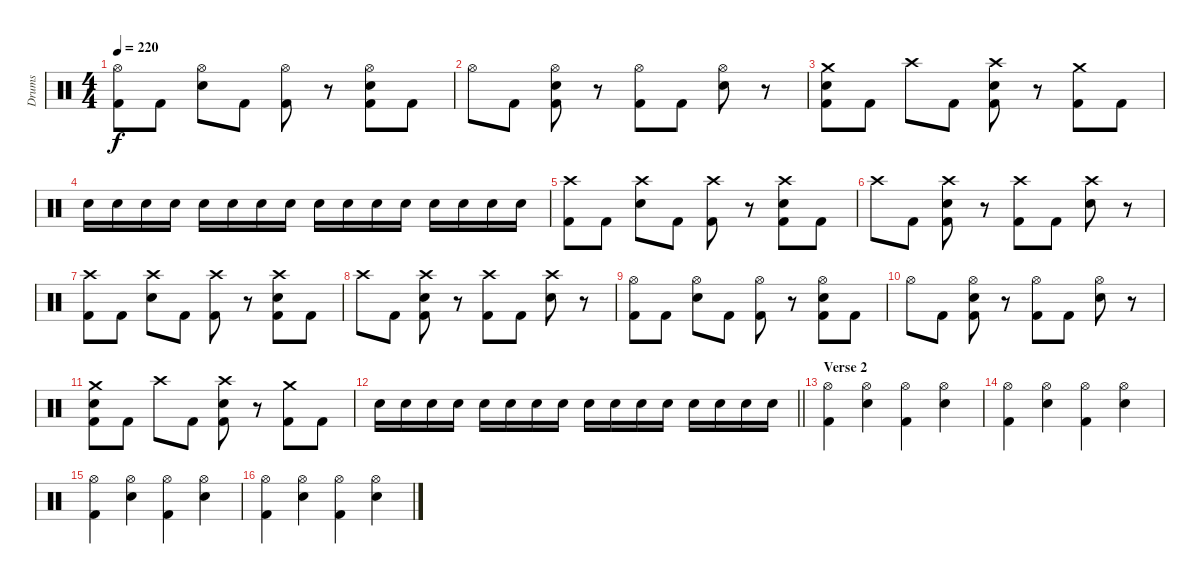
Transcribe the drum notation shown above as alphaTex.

\track ("Drums" "Drums") {instrument percussion}
\staff {score}
\articulation defaults
\ts (4 4)
\tempo 220
\clef neutral
\ks c
("Hi-Hat (open)" "Kick (hit) 2").8{dy f} "Kick (hit) 2".8 ("Hi-Hat (open)" "Electric Snare (hit)").8 "Kick (hit) 2".8 ("Hi-Hat (open)" "Kick (hit) 2").8 r.8 ("Hi-Hat (open)" "Electric Snare (hit)" "Kick (hit) 2").8 "Kick (hit) 2".8 |
"Hi-Hat (open)".8 "Kick (hit) 2".8 ("Hi-Hat (open)" "Electric Snare (hit)" "Kick (hit) 2").8 r.8 ("Hi-Hat (open)" "Kick (hit) 2").8 "Kick (hit) 2".8 ("Hi-Hat (open)" "Electric Snare (hit)").8 r.8 |
("Crash medium (hit)" "Electric Snare (hit)" "Kick (hit) 2").8 "Kick (hit) 2".8 "Crash high (hit)".8 "Kick (hit) 2".8 ("Crash high (hit)" "Electric Snare (hit)" "Kick (hit) 2").8 r.8 ("Crash medium (hit)" "Kick (hit) 2").8 "Kick (hit) 2".8 |
"Electric Snare (hit)".16 "Electric Snare (hit)".16 "Electric Snare (hit)".16 "Electric Snare (hit)".16 "Electric Snare (hit)".16 "Electric Snare (hit)".16 "Electric Snare (hit)".16 "Electric Snare (hit)".16 "Electric Snare (hit)".16 "Electric Snare (hit)".16 "Electric Snare (hit)".16 "Electric Snare (hit)".16 "Electric Snare (hit)".16 "Electric Snare (hit)".16 "Electric Snare (hit)".16 "Electric Snare (hit)".16 |
("Crash high (hit)" "Kick (hit) 2").8 "Kick (hit) 2".8 ("Crash high (hit)" "Electric Snare (hit)").8 "Kick (hit) 2".8 ("Crash high (hit)" "Kick (hit) 2").8 r.8 ("Crash high (hit)" "Electric Snare (hit)" "Kick (hit) 2").8 "Kick (hit) 2".8 |
"Crash high (hit)".8 "Kick (hit) 2".8 ("Crash high (hit)" "Electric Snare (hit)" "Kick (hit) 2").8 r.8 ("Crash high (hit)" "Kick (hit) 2").8 "Kick (hit) 2".8 ("Crash high (hit)" "Electric Snare (hit)").8 r.8 |
("Crash high (hit)" "Kick (hit) 2").8 "Kick (hit) 2".8 ("Crash high (hit)" "Electric Snare (hit)").8 "Kick (hit) 2".8 ("Crash high (hit)" "Kick (hit) 2").8 r.8 ("Crash high (hit)" "Electric Snare (hit)" "Kick (hit) 2").8 "Kick (hit) 2".8 |
"Crash high (hit)".8 "Kick (hit) 2".8 ("Crash high (hit)" "Electric Snare (hit)" "Kick (hit) 2").8 r.8 ("Crash high (hit)" "Kick (hit) 2").8 "Kick (hit) 2".8 ("Crash high (hit)" "Electric Snare (hit)").8 r.8 |
("Hi-Hat (open)" "Kick (hit) 2").8 "Kick (hit) 2".8 ("Hi-Hat (open)" "Electric Snare (hit)").8 "Kick (hit) 2".8 ("Hi-Hat (open)" "Kick (hit) 2").8 r.8 ("Hi-Hat (open)" "Electric Snare (hit)" "Kick (hit) 2").8 "Kick (hit) 2".8 |
"Hi-Hat (open)".8 "Kick (hit) 2".8 ("Hi-Hat (open)" "Electric Snare (hit)" "Kick (hit) 2").8 r.8 ("Hi-Hat (open)" "Kick (hit) 2").8 "Kick (hit) 2".8 ("Hi-Hat (open)" "Electric Snare (hit)").8 r.8 |
("Crash medium (hit)" "Electric Snare (hit)" "Kick (hit) 2").8 "Kick (hit) 2".8 "Crash high (hit)".8 "Kick (hit) 2".8 ("Crash high (hit)" "Electric Snare (hit)" "Kick (hit) 2").8 r.8 ("Crash medium (hit)" "Kick (hit) 2").8 "Kick (hit) 2".8 |
\barLineRight lightlight "Electric Snare (hit)".16 "Electric Snare (hit)".16 "Electric Snare (hit)".16 "Electric Snare (hit)".16 "Electric Snare (hit)".16 "Electric Snare (hit)".16 "Electric Snare (hit)".16 "Electric Snare (hit)".16 "Electric Snare (hit)".16 "Electric Snare (hit)".16 "Electric Snare (hit)".16 "Electric Snare (hit)".16 "Electric Snare (hit)".16 "Electric Snare (hit)".16 "Electric Snare (hit)".16 "Electric Snare (hit)".16
|
\section ("" "Verse 2")
("Hi-Hat (open)" "Kick (hit) 2").4 ("Hi-Hat (open)" "Electric Snare (hit)").4 ("Hi-Hat (open)" "Kick (hit) 2").4 ("Hi-Hat (open)" "Electric Snare (hit)").4 |
("Hi-Hat (open)" "Kick (hit) 2").4 ("Hi-Hat (open)" "Electric Snare (hit)").4 ("Hi-Hat (open)" "Kick (hit) 2").4 ("Hi-Hat (open)" "Electric Snare (hit)").4 |
("Hi-Hat (open)" "Kick (hit) 2").4 ("Hi-Hat (open)" "Electric Snare (hit)").4 ("Hi-Hat (open)" "Kick (hit) 2").4 ("Hi-Hat (open)" "Electric Snare (hit)").4 |
("Hi-Hat (open)" "Kick (hit) 2").4 ("Hi-Hat (open)" "Electric Snare (hit)").4 ("Hi-Hat (open)" "Kick (hit) 2").4 ("Hi-Hat (open)" "Electric Snare (hit)").4
